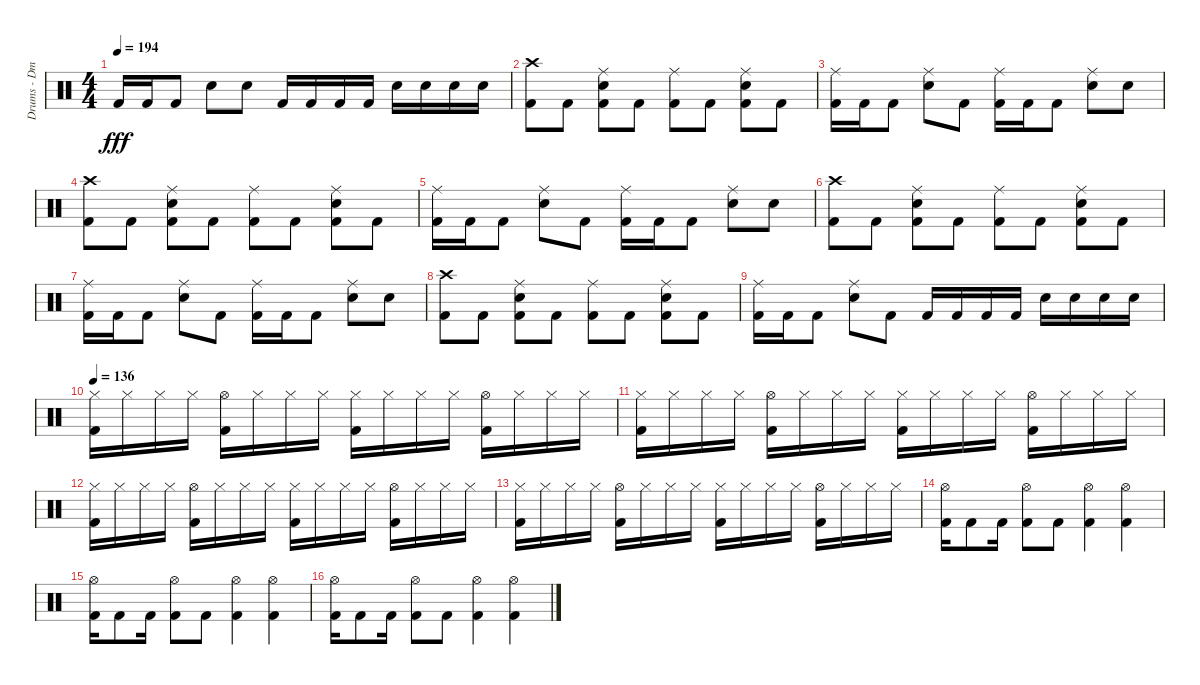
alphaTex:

\track ("Drums - Dmitriy Krivenkov" "Drums - Dm") {instrument percussion}
\staff {score}
\articulation defaults
\ts (4 4)
\tempo 194
\clef neutral
\ks c "Kick (hit) 2".16{dy fff} "Kick (hit) 2".16 "Kick (hit) 2".8 "Electric Snare (hit)".8 "Electric Snare (hit)".8 "Kick (hit) 2".16 "Kick (hit) 2".16 "Kick (hit) 2".16 "Kick (hit) 2".16 "Electric Snare (hit)".16 "Electric Snare (hit)".16 "Electric Snare (hit)".16 "Electric Snare (hit)".16
|
("Crash high (hit)" "Kick (hit) 2").8 "Kick (hit) 2".8 ("Ride (middle)" "Kick (hit) 2" "Electric Snare (hit)").8 "Kick (hit) 2".8 ("Ride (middle)" "Kick (hit) 2").8 "Kick (hit) 2".8 ("Ride (middle)" "Kick (hit) 2" "Electric Snare (hit)").8 "Kick (hit) 2".8 |
("Ride (middle)" "Kick (hit) 2").16 "Kick (hit) 2".16 "Kick (hit) 2".8 ("Ride (middle)" "Electric Snare (hit)").8 "Kick (hit) 2".8 ("Kick (hit) 2" "Ride (middle)").16 "Kick (hit) 2".16 "Kick (hit) 2".8 ("Electric Snare (hit)" "Ride (middle)").8 "Electric Snare (hit)".8 |
("Crash high (hit)" "Kick (hit) 2").8 "Kick (hit) 2".8 ("Ride (middle)" "Kick (hit) 2" "Electric Snare (hit)").8 "Kick (hit) 2".8 ("Ride (middle)" "Kick (hit) 2").8 "Kick (hit) 2".8 ("Ride (middle)" "Kick (hit) 2" "Electric Snare (hit)").8 "Kick (hit) 2".8 |
("Ride (middle)" "Kick (hit) 2").16 "Kick (hit) 2".16 "Kick (hit) 2".8 ("Ride (middle)" "Electric Snare (hit)").8 "Kick (hit) 2".8 ("Kick (hit) 2" "Ride (middle)").16 "Kick (hit) 2".16 "Kick (hit) 2".8 ("Electric Snare (hit)" "Ride (middle)").8 "Electric Snare (hit)".8 |
("Crash high (hit)" "Kick (hit) 2").8 "Kick (hit) 2".8 ("Ride (middle)" "Kick (hit) 2" "Electric Snare (hit)").8 "Kick (hit) 2".8 ("Ride (middle)" "Kick (hit) 2").8 "Kick (hit) 2".8 ("Ride (middle)" "Kick (hit) 2" "Electric Snare (hit)").8 "Kick (hit) 2".8 |
("Ride (middle)" "Kick (hit) 2").16 "Kick (hit) 2".16 "Kick (hit) 2".8 ("Ride (middle)" "Electric Snare (hit)").8 "Kick (hit) 2".8 ("Kick (hit) 2" "Ride (middle)").16 "Kick (hit) 2".16 "Kick (hit) 2".8 ("Electric Snare (hit)" "Ride (middle)").8 "Electric Snare (hit)".8 |
("Crash high (hit)" "Kick (hit) 2").8 "Kick (hit) 2".8 ("Ride (middle)" "Kick (hit) 2" "Electric Snare (hit)").8 "Kick (hit) 2".8 ("Ride (middle)" "Kick (hit) 2").8 "Kick (hit) 2".8 ("Ride (middle)" "Kick (hit) 2" "Electric Snare (hit)").8 "Kick (hit) 2".8 |
("Ride (middle)" "Kick (hit) 2").16 "Kick (hit) 2".16 "Kick (hit) 2".8 ("Ride (middle)" "Electric Snare (hit)").8 "Kick (hit) 2".8 "Kick (hit) 2".16 "Kick (hit) 2".16 "Kick (hit) 2".16 "Kick (hit) 2".16 "Electric Snare (hit)".16 "Electric Snare (hit)".16 "Electric Snare (hit)".16 "Electric Snare (hit)".16 |
\tempo 136
("Hi-Hat (closed)" "Kick (hit) 2").16 "Hi-Hat (closed)".16 "Hi-Hat (closed)".16 "Hi-Hat (closed)".16 ("Hi-Hat (open)" "Kick (hit) 2").16 "Hi-Hat (closed)".16 "Hi-Hat (closed)".16 "Hi-Hat (closed)".16 ("Hi-Hat (closed)" "Kick (hit) 2").16 "Hi-Hat (closed)".16 "Hi-Hat (closed)".16 "Hi-Hat (closed)".16 ("Hi-Hat (open)" "Kick (hit) 2").16 "Hi-Hat (closed)".16 "Hi-Hat (closed)".16 "Hi-Hat (closed)".16 |
("Hi-Hat (closed)" "Kick (hit) 2").16 "Hi-Hat (closed)".16 "Hi-Hat (closed)".16 "Hi-Hat (closed)".16 ("Hi-Hat (open)" "Kick (hit) 2").16 "Hi-Hat (closed)".16 "Hi-Hat (closed)".16 "Hi-Hat (closed)".16 ("Hi-Hat (closed)" "Kick (hit) 2").16 "Hi-Hat (closed)".16 "Hi-Hat (closed)".16 "Hi-Hat (closed)".16 ("Hi-Hat (open)" "Kick (hit) 2").16 "Hi-Hat (closed)".16 "Hi-Hat (closed)".16 "Hi-Hat (closed)".16 |
("Hi-Hat (closed)" "Kick (hit) 2").16 "Hi-Hat (closed)".16 "Hi-Hat (closed)".16 "Hi-Hat (closed)".16 ("Hi-Hat (open)" "Kick (hit) 2").16 "Hi-Hat (closed)".16 "Hi-Hat (closed)".16 "Hi-Hat (closed)".16 ("Hi-Hat (closed)" "Kick (hit) 2").16 "Hi-Hat (closed)".16 "Hi-Hat (closed)".16 "Hi-Hat (closed)".16 ("Hi-Hat (open)" "Kick (hit) 2").16 "Hi-Hat (closed)".16 "Hi-Hat (closed)".16 "Hi-Hat (closed)".16 |
("Hi-Hat (closed)" "Kick (hit) 2").16 "Hi-Hat (closed)".16 "Hi-Hat (closed)".16 "Hi-Hat (closed)".16 ("Hi-Hat (open)" "Kick (hit) 2").16 "Hi-Hat (closed)".16 "Hi-Hat (closed)".16 "Hi-Hat (closed)".16 ("Hi-Hat (closed)" "Kick (hit) 2").16 "Hi-Hat (closed)".16 "Hi-Hat (closed)".16 "Hi-Hat (closed)".16 ("Hi-Hat (open)" "Kick (hit) 2").16 "Hi-Hat (closed)".16 "Hi-Hat (closed)".16 "Hi-Hat (closed)".16 |
("Hi-Hat (open)" "Kick (hit) 2").16 "Kick (hit) 2".8 "Kick (hit) 2".16 ("Hi-Hat (open)" "Kick (hit) 2").8 "Kick (hit) 2".8 ("Hi-Hat (open)" "Kick (hit) 2").4 ("Hi-Hat (open)" "Kick (hit) 2").4 |
("Hi-Hat (open)" "Kick (hit) 2").16 "Kick (hit) 2".8 "Kick (hit) 2".16 ("Hi-Hat (open)" "Kick (hit) 2").8 "Kick (hit) 2".8 ("Hi-Hat (open)" "Kick (hit) 2").4 ("Hi-Hat (open)" "Kick (hit) 2").4 |
("Hi-Hat (open)" "Kick (hit) 2").16 "Kick (hit) 2".8 "Kick (hit) 2".16 ("Hi-Hat (open)" "Kick (hit) 2").8 "Kick (hit) 2".8 ("Hi-Hat (open)" "Kick (hit) 2").4 ("Hi-Hat (open)" "Kick (hit) 2").4
